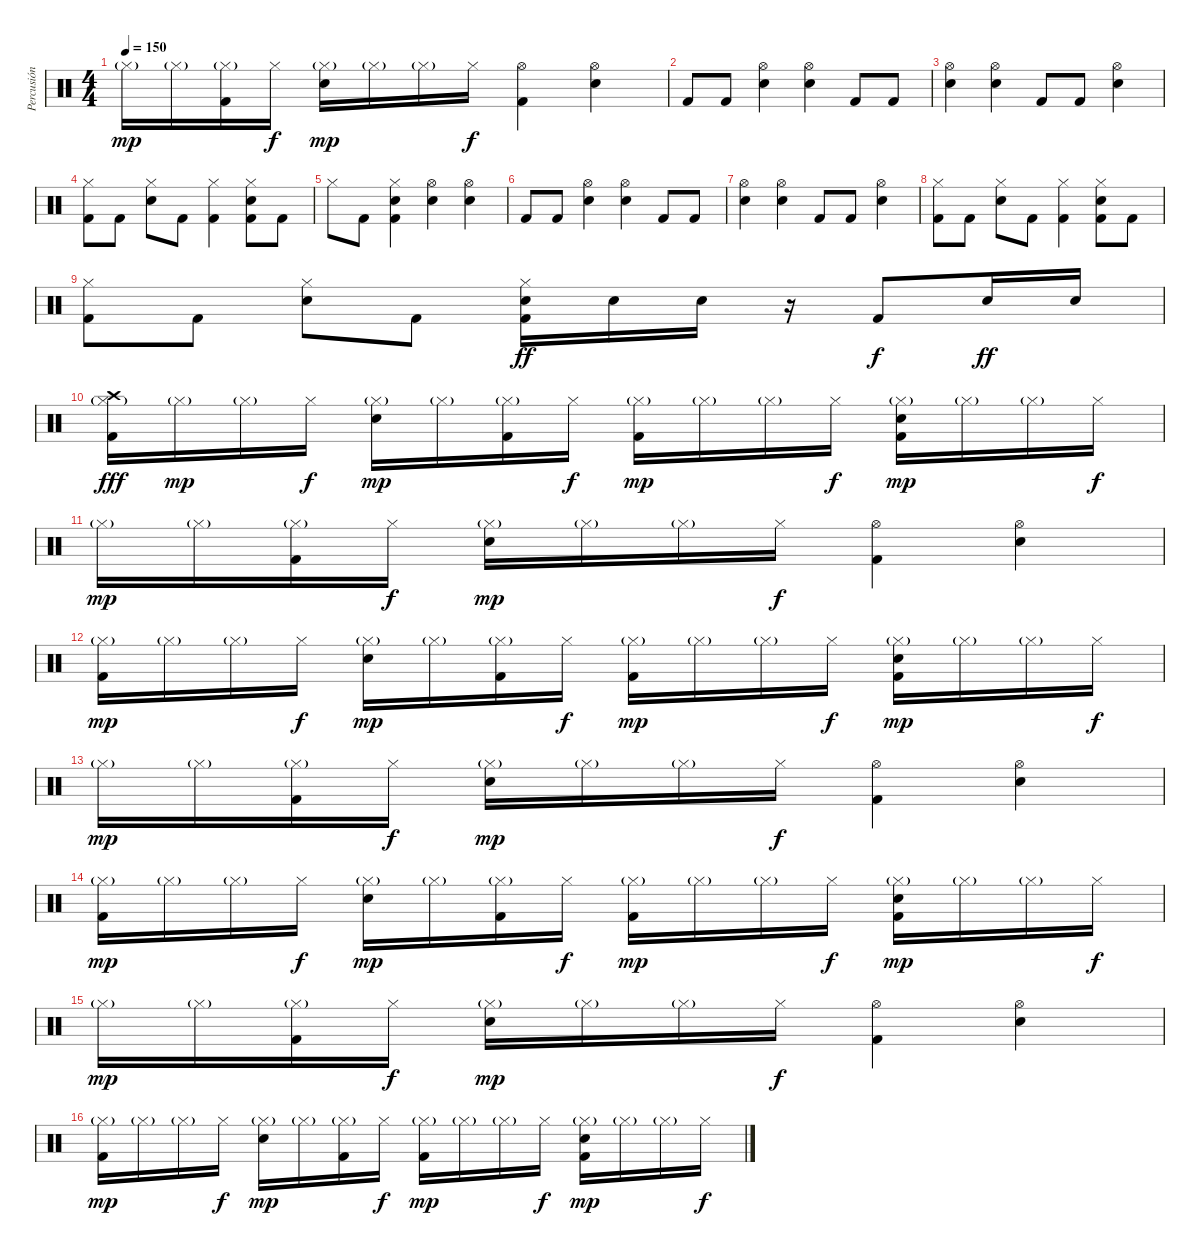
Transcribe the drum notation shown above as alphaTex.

\track ("Percusión" "Percusión") {instrument percussion}
\staff {score}
\articulation defaults
\ts (4 4)
\tempo 150
\clef neutral
\ks c "Hi-Hat (closed)"{g}.16{dy mp} "Hi-Hat (closed)"{g}.16
("Hi-Hat (closed)"{g} "Kick (hit) 2").16 "Hi-Hat (closed)".16{dy f} ("Hi-Hat (closed)"{g} "Electric Snare (hit)").16{dy mp} "Hi-Hat (closed)"{g}.16 "Hi-Hat (closed)"{g}.16 "Hi-Hat (closed)".16{dy f} ("Hi-Hat (open)" "Kick (hit) 2").4 ("Hi-Hat (open)" "Electric Snare (hit)").4 |
"Kick (hit) 2".8 "Kick (hit) 2".8 ("Hi-Hat (open)" "Electric Snare (hit)").4 ("Hi-Hat (open)" "Electric Snare (hit)").4 "Kick (hit) 2".8 "Kick (hit) 2".8 |
("Hi-Hat (open)" "Electric Snare (hit)").4 ("Hi-Hat (open)" "Electric Snare (hit)").4 "Kick (hit) 2".8 "Kick (hit) 2".8 ("Hi-Hat (open)" "Electric Snare (hit)").4 |
("Hi-Hat (closed)" "Kick (hit) 2").8 "Kick (hit) 2".8 ("Hi-Hat (closed)" "Electric Snare (hit)").8 "Kick (hit) 2".8 ("Hi-Hat (closed)" "Kick (hit) 2").4 ("Hi-Hat (closed)" "Kick (hit) 2" "Electric Snare (hit)").8 "Kick (hit) 2".8 |
"Hi-Hat (closed)".8 "Kick (hit) 2".8 ("Hi-Hat (closed)" "Kick (hit) 2" "Electric Snare (hit)").4 ("Hi-Hat (open)" "Electric Snare (hit)").4 ("Hi-Hat (open)" "Electric Snare (hit)").4 |
"Kick (hit) 2".8 "Kick (hit) 2".8 ("Hi-Hat (open)" "Electric Snare (hit)").4 ("Hi-Hat (open)" "Electric Snare (hit)").4 "Kick (hit) 2".8 "Kick (hit) 2".8 |
("Hi-Hat (open)" "Electric Snare (hit)").4 ("Hi-Hat (open)" "Electric Snare (hit)").4 "Kick (hit) 2".8 "Kick (hit) 2".8 ("Hi-Hat (open)" "Electric Snare (hit)").4 |
("Hi-Hat (closed)" "Kick (hit) 2").8 "Kick (hit) 2".8 ("Hi-Hat (closed)" "Electric Snare (hit)").8 "Kick (hit) 2".8 ("Hi-Hat (closed)" "Kick (hit) 2").4 ("Hi-Hat (closed)" "Kick (hit) 2" "Electric Snare (hit)").8 "Kick (hit) 2".8 |
("Hi-Hat (closed)" "Kick (hit) 2").8 "Kick (hit) 2".8 ("Hi-Hat (closed)" "Electric Snare (hit)").8 "Kick (hit) 2".8 ("Hi-Hat (closed)" "Kick (hit) 2" "Electric Snare (hit)").16{dy ff} "Electric Snare (hit)".16 "Electric Snare (hit)".16 r.16 "Kick (hit) 2".8{dy f} "Electric Snare (hit)".16{dy ff} "Electric Snare (hit)".16 |
("Hi-Hat (closed)"{g} "Kick (hit) 2" "Crash high (hit)").16{dy fff} "Hi-Hat (closed)"{g}.16{dy mp} "Hi-Hat (closed)"{g}.16 "Hi-Hat (closed)".16{dy f} ("Hi-Hat (closed)"{g} "Electric Snare (hit)").16{dy mp} "Hi-Hat (closed)"{g}.16 ("Hi-Hat (closed)"{g} "Kick (hit) 2").16 "Hi-Hat (closed)".16{dy f} ("Hi-Hat (closed)"{g} "Kick (hit) 2").16{dy mp} "Hi-Hat (closed)"{g}.16 "Hi-Hat (closed)"{g}.16 "Hi-Hat (closed)".16{dy f} ("Hi-Hat (closed)"{g} "Kick (hit) 2" "Electric Snare (hit)").16{dy mp} "Hi-Hat (closed)"{g}.16 "Hi-Hat (closed)"{g}.16 "Hi-Hat (closed)".16{dy f} |
"Hi-Hat (closed)"{g}.16{dy mp} "Hi-Hat (closed)"{g}.16 ("Hi-Hat (closed)"{g} "Kick (hit) 2").16 "Hi-Hat (closed)".16{dy f} ("Hi-Hat (closed)"{g} "Electric Snare (hit)").16{dy mp} "Hi-Hat (closed)"{g}.16 "Hi-Hat (closed)"{g}.16 "Hi-Hat (closed)".16{dy f} ("Hi-Hat (open)" "Kick (hit) 2").4 ("Hi-Hat (open)" "Electric Snare (hit)").4 |
("Hi-Hat (closed)"{g} "Kick (hit) 2").16{dy mp} "Hi-Hat (closed)"{g}.16 "Hi-Hat (closed)"{g}.16 "Hi-Hat (closed)".16{dy f} ("Hi-Hat (closed)"{g} "Electric Snare (hit)").16{dy mp} "Hi-Hat (closed)"{g}.16 ("Hi-Hat (closed)"{g} "Kick (hit) 2").16 "Hi-Hat (closed)".16{dy f} ("Hi-Hat (closed)"{g} "Kick (hit) 2").16{dy mp} "Hi-Hat (closed)"{g}.16 "Hi-Hat (closed)"{g}.16 "Hi-Hat (closed)".16{dy f} ("Hi-Hat (closed)"{g} "Kick (hit) 2" "Electric Snare (hit)").16{dy mp} "Hi-Hat (closed)"{g}.16 "Hi-Hat (closed)"{g}.16 "Hi-Hat (closed)".16{dy f} |
"Hi-Hat (closed)"{g}.16{dy mp} "Hi-Hat (closed)"{g}.16 ("Hi-Hat (closed)"{g} "Kick (hit) 2").16 "Hi-Hat (closed)".16{dy f} ("Hi-Hat (closed)"{g} "Electric Snare (hit)").16{dy mp} "Hi-Hat (closed)"{g}.16 "Hi-Hat (closed)"{g}.16 "Hi-Hat (closed)".16{dy f} ("Hi-Hat (open)" "Kick (hit) 2").4 ("Hi-Hat (open)" "Electric Snare (hit)").4 |
("Hi-Hat (closed)"{g} "Kick (hit) 2").16{dy mp} "Hi-Hat (closed)"{g}.16 "Hi-Hat (closed)"{g}.16 "Hi-Hat (closed)".16{dy f} ("Hi-Hat (closed)"{g} "Electric Snare (hit)").16{dy mp} "Hi-Hat (closed)"{g}.16 ("Hi-Hat (closed)"{g} "Kick (hit) 2").16 "Hi-Hat (closed)".16{dy f} ("Hi-Hat (closed)"{g} "Kick (hit) 2").16{dy mp} "Hi-Hat (closed)"{g}.16 "Hi-Hat (closed)"{g}.16 "Hi-Hat (closed)".16{dy f} ("Hi-Hat (closed)"{g} "Kick (hit) 2" "Electric Snare (hit)").16{dy mp} "Hi-Hat (closed)"{g}.16 "Hi-Hat (closed)"{g}.16 "Hi-Hat (closed)".16{dy f} |
"Hi-Hat (closed)"{g}.16{dy mp} "Hi-Hat (closed)"{g}.16 ("Hi-Hat (closed)"{g} "Kick (hit) 2").16 "Hi-Hat (closed)".16{dy f} ("Hi-Hat (closed)"{g} "Electric Snare (hit)").16{dy mp} "Hi-Hat (closed)"{g}.16 "Hi-Hat (closed)"{g}.16 "Hi-Hat (closed)".16{dy f} ("Hi-Hat (open)" "Kick (hit) 2").4 ("Hi-Hat (open)" "Electric Snare (hit)").4 |
("Hi-Hat (closed)"{g} "Kick (hit) 2").16{dy mp} "Hi-Hat (closed)"{g}.16 "Hi-Hat (closed)"{g}.16 "Hi-Hat (closed)".16{dy f} ("Hi-Hat (closed)"{g} "Electric Snare (hit)").16{dy mp} "Hi-Hat (closed)"{g}.16 ("Hi-Hat (closed)"{g} "Kick (hit) 2").16 "Hi-Hat (closed)".16{dy f} ("Hi-Hat (closed)"{g} "Kick (hit) 2").16{dy mp} "Hi-Hat (closed)"{g}.16 "Hi-Hat (closed)"{g}.16 "Hi-Hat (closed)".16{dy f} ("Hi-Hat (closed)"{g} "Kick (hit) 2" "Electric Snare (hit)").16{dy mp} "Hi-Hat (closed)"{g}.16 "Hi-Hat (closed)"{g}.16 "Hi-Hat (closed)".16{dy f}
